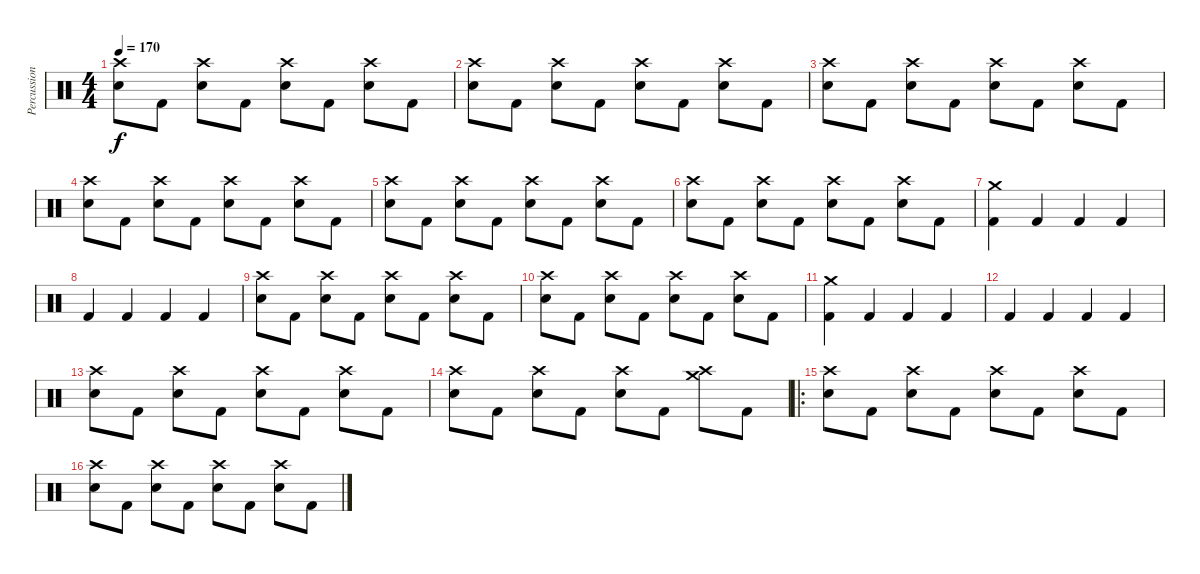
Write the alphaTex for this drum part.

\track ("Percussion" "Percussion") {instrument percussion}
\staff {score}
\articulation defaults
\ts (4 4)
\tempo 170
\clef neutral
\ks c
("Crash high (hit)" "Electric Snare (hit)").8{dy f} "Kick (hit) 2".8 ("Crash high (hit)" "Electric Snare (hit)").8 "Kick (hit) 2".8 ("Crash high (hit)" "Electric Snare (hit)").8 "Kick (hit) 2".8 ("Crash high (hit)" "Electric Snare (hit)").8 "Kick (hit) 2".8 |
("Crash high (hit)" "Electric Snare (hit)").8 "Kick (hit) 2".8 ("Crash high (hit)" "Electric Snare (hit)").8 "Kick (hit) 2".8 ("Crash high (hit)" "Electric Snare (hit)").8 "Kick (hit) 2".8 ("Crash high (hit)" "Electric Snare (hit)").8 "Kick (hit) 2".8 |
("Crash high (hit)" "Electric Snare (hit)").8 "Kick (hit) 2".8 ("Crash high (hit)" "Electric Snare (hit)").8 "Kick (hit) 2".8 ("Crash high (hit)" "Electric Snare (hit)").8 "Kick (hit) 2".8 ("Crash high (hit)" "Electric Snare (hit)").8 "Kick (hit) 2".8 |
("Crash high (hit)" "Electric Snare (hit)").8 "Kick (hit) 2".8 ("Crash high (hit)" "Electric Snare (hit)").8 "Kick (hit) 2".8 ("Crash high (hit)" "Electric Snare (hit)").8 "Kick (hit) 2".8 ("Crash high (hit)" "Electric Snare (hit)").8 "Kick (hit) 2".8 |
("Crash high (hit)" "Electric Snare (hit)").8 "Kick (hit) 2".8 ("Crash high (hit)" "Electric Snare (hit)").8 "Kick (hit) 2".8 ("Crash high (hit)" "Electric Snare (hit)").8 "Kick (hit) 2".8 ("Crash high (hit)" "Electric Snare (hit)").8 "Kick (hit) 2".8 |
("Crash high (hit)" "Electric Snare (hit)").8 "Kick (hit) 2".8 ("Crash high (hit)" "Electric Snare (hit)").8 "Kick (hit) 2".8 ("Crash high (hit)" "Electric Snare (hit)").8 "Kick (hit) 2".8 ("Crash high (hit)" "Electric Snare (hit)").8 "Kick (hit) 2".8 |
("Crash medium (hit)" "Kick (hit) 2").4 "Kick (hit) 2".4 "Kick (hit) 2".4 "Kick (hit) 2".4 |
"Kick (hit) 2".4 "Kick (hit) 2".4 "Kick (hit) 2".4 "Kick (hit) 2".4 |
("Crash high (hit)" "Electric Snare (hit)").8 "Kick (hit) 2".8 ("Crash high (hit)" "Electric Snare (hit)").8 "Kick (hit) 2".8 ("Crash high (hit)" "Electric Snare (hit)").8 "Kick (hit) 2".8 ("Crash high (hit)" "Electric Snare (hit)").8 "Kick (hit) 2".8 |
("Crash high (hit)" "Electric Snare (hit)").8 "Kick (hit) 2".8 ("Crash high (hit)" "Electric Snare (hit)").8 "Kick (hit) 2".8 ("Crash high (hit)" "Electric Snare (hit)").8 "Kick (hit) 2".8 ("Crash high (hit)" "Electric Snare (hit)").8 "Kick (hit) 2".8 |
("Crash medium (hit)" "Kick (hit) 2").4 "Kick (hit) 2".4 "Kick (hit) 2".4 "Kick (hit) 2".4 |
"Kick (hit) 2".4 "Kick (hit) 2".4 "Kick (hit) 2".4 "Kick (hit) 2".4 |
("Crash high (hit)" "Electric Snare (hit)").8 "Kick (hit) 2".8 ("Crash high (hit)" "Electric Snare (hit)").8 "Kick (hit) 2".8 ("Crash high (hit)" "Electric Snare (hit)").8 "Kick (hit) 2".8 ("Crash high (hit)" "Electric Snare (hit)").8 "Kick (hit) 2".8 |
("Crash high (hit)" "Electric Snare (hit)").8 "Kick (hit) 2".8 ("Crash high (hit)" "Electric Snare (hit)").8 "Kick (hit) 2".8 ("Crash high (hit)" "Electric Snare (hit)").8 "Kick (hit) 2".8 ("Crash high (hit)" "Crash medium (hit)").8 "Kick (hit) 2".8 |
\ro
("Crash high (hit)" "Electric Snare (hit)").8 "Kick (hit) 2".8 ("Crash high (hit)" "Electric Snare (hit)").8 "Kick (hit) 2".8 ("Crash high (hit)" "Electric Snare (hit)").8 "Kick (hit) 2".8 ("Crash high (hit)" "Electric Snare (hit)").8 "Kick (hit) 2".8 |
("Crash high (hit)" "Electric Snare (hit)").8 "Kick (hit) 2".8 ("Crash high (hit)" "Electric Snare (hit)").8 "Kick (hit) 2".8 ("Crash high (hit)" "Electric Snare (hit)").8 "Kick (hit) 2".8 ("Crash high (hit)" "Electric Snare (hit)").8 "Kick (hit) 2".8
